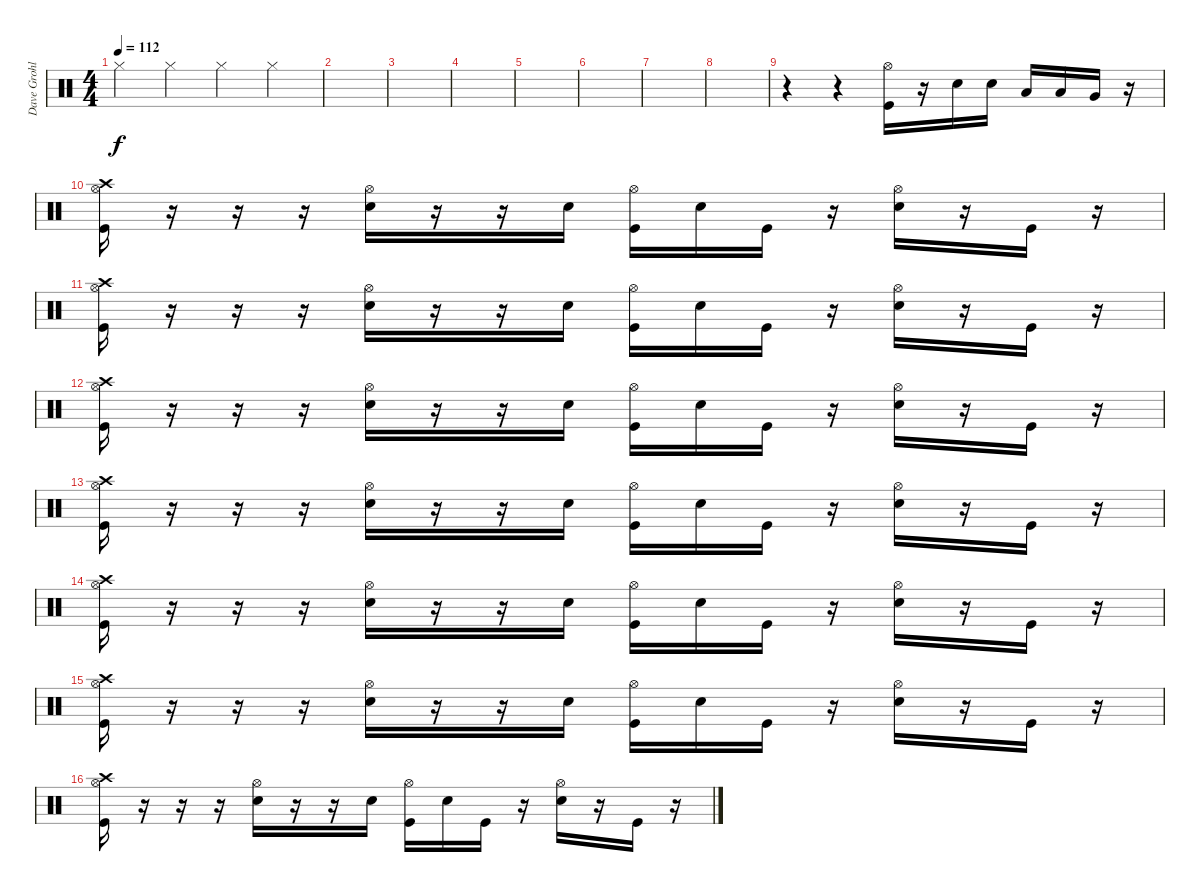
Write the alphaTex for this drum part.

\track ("Dave Grohl (Drums)" "Dave Grohl") {instrument percussion}
\staff {score}
\articulation defaults
\ts (4 4)
\tempo 112
\clef neutral
\ks c "Hi-Hat (closed)".4{dy f} "Hi-Hat (closed)".4 "Hi-Hat (closed)".4 "Hi-Hat (closed)".4
|
|
|
|
|
|
|
|
r.4 r.4 ("Hi-Hat (open)" "Kick (hit)").16 r.16 "Electric Snare (hit)".16 "Electric Snare (hit)".16 "Low Floor Tom (hit)".16 "Low Floor Tom (hit)".16 "Very Low Tom (hit)".16 r.16 |
("Hi-Hat (open)" "Kick (hit)" "Crash high (hit)").16 r.16 r.16 r.16 ("Hi-Hat (open)" "Electric Snare (hit)").16 r.16 r.16 "Electric Snare (hit)".16 ("Hi-Hat (open)" "Kick (hit)").16 "Electric Snare (hit)".16 "Kick (hit)".16 r.16 ("Hi-Hat (open)" "Electric Snare (hit)").16 r.16 "Kick (hit)".16 r.16 |
("Hi-Hat (open)" "Kick (hit)" "Crash high (hit)").16 r.16 r.16 r.16 ("Hi-Hat (open)" "Electric Snare (hit)").16 r.16 r.16 "Electric Snare (hit)".16 ("Hi-Hat (open)" "Kick (hit)").16 "Electric Snare (hit)".16 "Kick (hit)".16 r.16 ("Hi-Hat (open)" "Electric Snare (hit)").16 r.16 "Kick (hit)".16 r.16 |
("Hi-Hat (open)" "Kick (hit)" "Crash high (hit)").16 r.16 r.16 r.16 ("Hi-Hat (open)" "Electric Snare (hit)").16 r.16 r.16 "Electric Snare (hit)".16 ("Hi-Hat (open)" "Kick (hit)").16 "Electric Snare (hit)".16 "Kick (hit)".16 r.16 ("Hi-Hat (open)" "Electric Snare (hit)").16 r.16 "Kick (hit)".16 r.16 |
("Hi-Hat (open)" "Kick (hit)" "Crash high (hit)").16 r.16 r.16 r.16 ("Hi-Hat (open)" "Electric Snare (hit)").16 r.16 r.16 "Electric Snare (hit)".16 ("Hi-Hat (open)" "Kick (hit)").16 "Electric Snare (hit)".16 "Kick (hit)".16 r.16 ("Hi-Hat (open)" "Electric Snare (hit)").16 r.16 "Kick (hit)".16 r.16 |
("Hi-Hat (open)" "Kick (hit)" "Crash high (hit)").16 r.16 r.16 r.16 ("Hi-Hat (open)" "Electric Snare (hit)").16 r.16 r.16 "Electric Snare (hit)".16 ("Hi-Hat (open)" "Kick (hit)").16 "Electric Snare (hit)".16 "Kick (hit)".16 r.16 ("Hi-Hat (open)" "Electric Snare (hit)").16 r.16 "Kick (hit)".16 r.16 |
("Hi-Hat (open)" "Kick (hit)" "Crash high (hit)").16 r.16 r.16 r.16 ("Hi-Hat (open)" "Electric Snare (hit)").16 r.16 r.16 "Electric Snare (hit)".16 ("Hi-Hat (open)" "Kick (hit)").16 "Electric Snare (hit)".16 "Kick (hit)".16 r.16 ("Hi-Hat (open)" "Electric Snare (hit)").16 r.16 "Kick (hit)".16 r.16 |
("Hi-Hat (open)" "Kick (hit)" "Crash high (hit)").16 r.16 r.16 r.16 ("Hi-Hat (open)" "Electric Snare (hit)").16 r.16 r.16 "Electric Snare (hit)".16 ("Hi-Hat (open)" "Kick (hit)").16 "Electric Snare (hit)".16 "Kick (hit)".16 r.16 ("Hi-Hat (open)" "Electric Snare (hit)").16 r.16 "Kick (hit)".16 r.16
